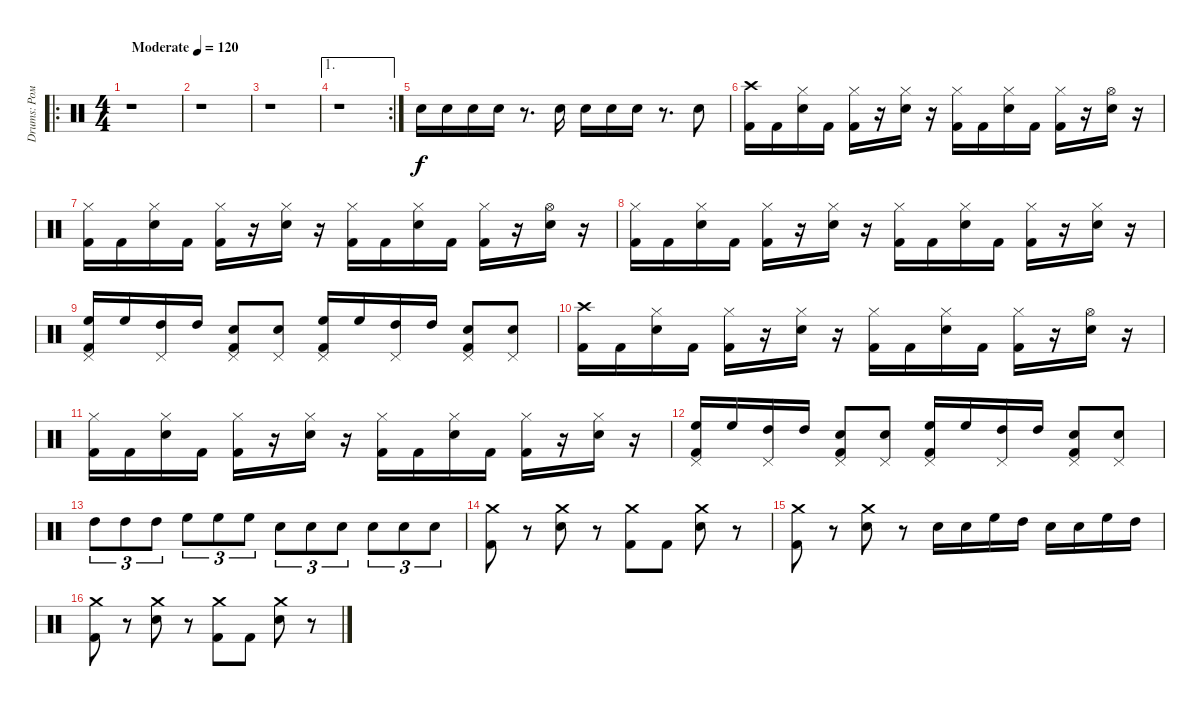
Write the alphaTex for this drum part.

\track ("Drums: Рома" "Drums: Ром") {instrument percussion}
\staff {score}
\articulation defaults
\ro
\ts (4 4)
\tempo (120 "Moderate")
\clef neutral
\ks c
r.1{dy f} |
r.1 |
r.1 |
\ae 1
\rc 2
r.1 |
"Snare (hit) 2".16 "Snare (hit) 2".16 "Snare (hit) 2".16 "Snare (hit) 2".16 r.8{d} "Snare (hit) 2".16 "Snare (hit) 2".16 "Snare (hit) 2".16 "Snare (hit) 2".16 r.8{d} "Snare (hit) 2".8 |
("Kick (hit) 2" "Crash high (hit)").16 "Kick (hit) 2".16 ("Snare (hit) 2" "Hi-Hat (closed)").16 "Kick (hit) 2".16 ("Kick (hit) 2" "Hi-Hat (closed)").16 r.16 ("Snare (hit) 2" "Hi-Hat (closed)").16 r.16 ("Kick (hit) 2" "Hi-Hat (closed)").16 "Kick (hit) 2".16 ("Snare (hit) 2" "Hi-Hat (closed)").16 "Kick (hit) 2".16 ("Kick (hit) 2" "Hi-Hat (closed)").16 r.16 ("Snare (hit) 2" "Hi-Hat (open)").16 r.16 |
("Kick (hit) 2" "Hi-Hat (closed)").16 "Kick (hit) 2".16 ("Snare (hit) 2" "Hi-Hat (closed)").16 "Kick (hit) 2".16 ("Kick (hit) 2" "Hi-Hat (closed)").16 r.16 ("Snare (hit) 2" "Hi-Hat (closed)").16 r.16 ("Kick (hit) 2" "Hi-Hat (closed)").16 "Kick (hit) 2".16 ("Snare (hit) 2" "Hi-Hat (closed)").16 "Kick (hit) 2".16 ("Kick (hit) 2" "Hi-Hat (closed)").16 r.16 ("Snare (hit) 2" "Hi-Hat (open)").16 r.16 |
("Kick (hit) 2" "Hi-Hat (closed)").16 "Kick (hit) 2".16 ("Snare (hit) 2" "Hi-Hat (closed)").16 "Kick (hit) 2".16 ("Kick (hit) 2" "Hi-Hat (closed)").16 r.16 ("Snare (hit) 2" "Hi-Hat (closed)").16 r.16 ("Kick (hit) 2" "Hi-Hat (closed)").16 "Kick (hit) 2".16 ("Snare (hit) 2" "Hi-Hat (closed)").16 "Kick (hit) 2".16 ("Kick (hit) 2" "Hi-Hat (closed)").16 r.16 ("Snare (hit) 2" "Hi-Hat (closed)").16 r.16 |
("High Floor Tom (hit)" "Pedal Hi-Hat (hit)" "Kick (hit) 2").16 "High Floor Tom (hit)".16 ("High Tom (hit)" "Pedal Hi-Hat (hit)").16 "High Tom (hit)".16 ("Snare (hit) 2" "Pedal Hi-Hat (hit)" "Kick (hit) 2").8 ("Snare (hit) 2" "Pedal Hi-Hat (hit)").8 ("High Floor Tom (hit)" "Pedal Hi-Hat (hit)" "Kick (hit) 2").16 "High Floor Tom (hit)".16 ("High Tom (hit)" "Pedal Hi-Hat (hit)").16 "High Tom (hit)".16 ("Snare (hit) 2" "Pedal Hi-Hat (hit)" "Kick (hit) 2").8 ("Snare (hit) 2" "Pedal Hi-Hat (hit)").8 |
("Kick (hit) 2" "Crash high (hit)").16 "Kick (hit) 2".16 ("Snare (hit) 2" "Hi-Hat (closed)").16 "Kick (hit) 2".16 ("Kick (hit) 2" "Hi-Hat (closed)").16 r.16 ("Snare (hit) 2" "Hi-Hat (closed)").16 r.16 ("Kick (hit) 2" "Hi-Hat (closed)").16 "Kick (hit) 2".16 ("Snare (hit) 2" "Hi-Hat (closed)").16 "Kick (hit) 2".16 ("Kick (hit) 2" "Hi-Hat (closed)").16 r.16 ("Snare (hit) 2" "Hi-Hat (open)").16 r.16 |
("Kick (hit) 2" "Hi-Hat (closed)").16 "Kick (hit) 2".16 ("Snare (hit) 2" "Hi-Hat (closed)").16 "Kick (hit) 2".16 ("Kick (hit) 2" "Hi-Hat (closed)").16 r.16 ("Snare (hit) 2" "Hi-Hat (closed)").16 r.16 ("Kick (hit) 2" "Hi-Hat (closed)").16 "Kick (hit) 2".16 ("Snare (hit) 2" "Hi-Hat (closed)").16 "Kick (hit) 2".16 ("Kick (hit) 2" "Hi-Hat (closed)").16 r.16 ("Snare (hit) 2" "Hi-Hat (closed)").16 r.16 |
("High Floor Tom (hit)" "Pedal Hi-Hat (hit)" "Kick (hit) 2").16 "High Floor Tom (hit)".16 ("High Tom (hit)" "Pedal Hi-Hat (hit)").16 "High Tom (hit)".16 ("Snare (hit) 2" "Pedal Hi-Hat (hit)" "Kick (hit) 2").8 ("Snare (hit) 2" "Pedal Hi-Hat (hit)").8 ("High Floor Tom (hit)" "Pedal Hi-Hat (hit)" "Kick (hit) 2").16 "High Floor Tom (hit)".16 ("High Tom (hit)" "Pedal Hi-Hat (hit)").16 "High Tom (hit)".16 ("Snare (hit) 2" "Pedal Hi-Hat (hit)" "Kick (hit) 2").8 ("Snare (hit) 2" "Pedal Hi-Hat (hit)").8 |
"High Tom (hit)".8{tu (3 2)} "High Tom (hit)".8{tu (3 2)} "High Tom (hit)".8{tu (3 2)} "High Floor Tom (hit)".8{tu (3 2)} "High Floor Tom (hit)".8{tu (3 2)} "High Floor Tom (hit)".8{tu (3 2)} "Snare (hit) 2".8{tu (3 2)} "Snare (hit) 2".8{tu (3 2)} "Snare (hit) 2".8{tu (3 2)} "Snare (hit) 2".8{tu (3 2)} "Snare (hit) 2".8{tu (3 2)} "Snare (hit) 2".8{tu (3 2)} |
("Kick (hit) 2" "Crash medium (hit)").8 r.8 ("Snare (hit) 2" "Crash medium (hit)").8 r.8 ("Kick (hit) 2" "Crash medium (hit)").8 "Kick (hit) 2".8 ("Snare (hit) 2" "Crash medium (hit)").8 r.8 |
("Kick (hit) 2" "Crash medium (hit)").8 r.8 ("Snare (hit) 2" "Crash medium (hit)").8 r.8 "Snare (hit) 2".16 "Snare (hit) 2".16 "High Floor Tom (hit)".16 "High Tom (hit)".16 "Snare (hit) 2".16 "Snare (hit) 2".16 "High Floor Tom (hit)".16 "High Tom (hit)".16 |
("Kick (hit) 2" "Crash medium (hit)").8 r.8 ("Snare (hit) 2" "Crash medium (hit)").8 r.8 ("Kick (hit) 2" "Crash medium (hit)").8 "Kick (hit) 2".8 ("Snare (hit) 2" "Crash medium (hit)").8 r.8
